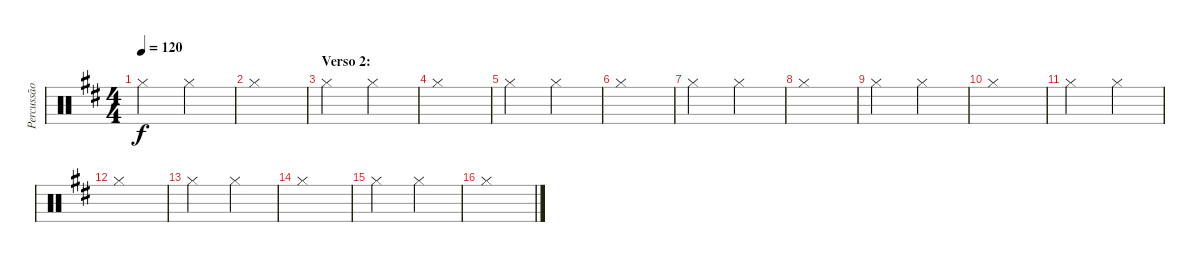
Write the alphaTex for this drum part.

\track ("Percussão" "Percussão") {instrument percussion}
\staff {score}
\articulation defaults
\ts (4 4)
\tempo 120
\clef neutral
\ks d "Hi-Hat (closed)".2{dy f} "Hi-Hat (closed)".2
|
"Hi-Hat (closed)".1 |
\section ("" "Verso 2:")
"Hi-Hat (closed)".2 "Hi-Hat (closed)".2 |
"Hi-Hat (closed)".1 |
"Hi-Hat (closed)".2 "Hi-Hat (closed)".2 |
"Hi-Hat (closed)".1 |
"Hi-Hat (closed)".2 "Hi-Hat (closed)".2 |
"Hi-Hat (closed)".1 |
"Hi-Hat (closed)".2 "Hi-Hat (closed)".2 |
"Hi-Hat (closed)".1 |
"Hi-Hat (closed)".2 "Hi-Hat (closed)".2 |
"Hi-Hat (closed)".1 |
"Hi-Hat (closed)".2 "Hi-Hat (closed)".2 |
"Hi-Hat (closed)".1 |
"Hi-Hat (closed)".2 "Hi-Hat (closed)".2 |
"Hi-Hat (closed)".1
